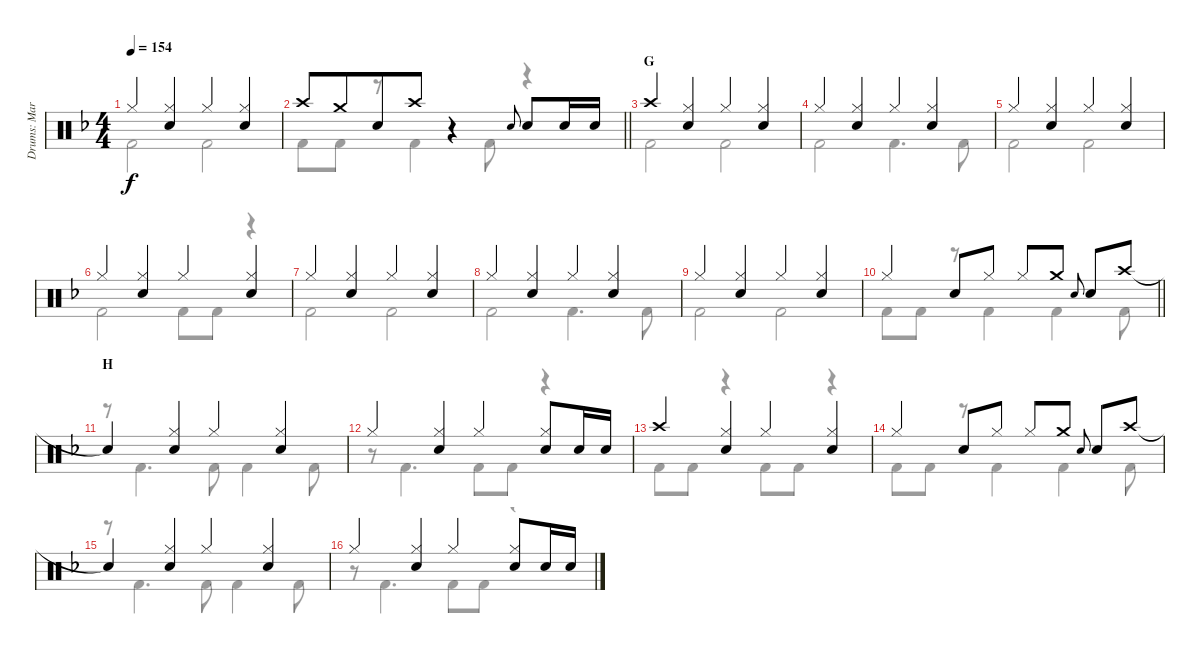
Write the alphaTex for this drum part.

\track ("Drums: Mark" "Drums: Mar") {instrument percussion}
\staff {score}
\articulation defaults
\voice
\ts (4 4)
\tempo 154
\clef neutral
\ks f "Hi-Hat (closed)".4{dy f}
("Hi-Hat (closed)" "Snare (hit) 2").4 "Hi-Hat (closed)".4 ("Hi-Hat (closed)" "Snare (hit) 2").4 |
\barLineRight lightlight "Crash high (hit)".8 "Crash medium (hit)".8{beam merge} "Snare (hit) 2".8 "Crash high (hit)".8
r.4 "Electric Snare (hit)".8{gr onbeat} "Snare (hit) 2".8 "Snare (hit) 2".16 "Snare (hit) 2".16 |
\section ("" "G")
"Crash high (hit)".4 ("Hi-Hat (closed)" "Snare (hit) 2").4 "Hi-Hat (closed)".4 ("Hi-Hat (closed)" "Snare (hit) 2").4 |
"Hi-Hat (closed)".4 ("Hi-Hat (closed)" "Snare (hit) 2").4 "Hi-Hat (closed)".4 ("Hi-Hat (closed)" "Snare (hit) 2").4 |
"Hi-Hat (closed)".4 ("Hi-Hat (closed)" "Snare (hit) 2").4 "Hi-Hat (closed)".4 ("Hi-Hat (closed)" "Snare (hit) 2").4 |
"Hi-Hat (closed)".4 ("Hi-Hat (closed)" "Snare (hit) 2").4 "Hi-Hat (closed)".4 ("Hi-Hat (closed)" "Snare (hit) 2").4 |
"Hi-Hat (closed)".4 ("Hi-Hat (closed)" "Snare (hit) 2").4 "Hi-Hat (closed)".4 ("Hi-Hat (closed)" "Snare (hit) 2").4 |
"Hi-Hat (closed)".4 ("Hi-Hat (closed)" "Snare (hit) 2").4 "Hi-Hat (closed)".4 ("Hi-Hat (closed)" "Snare (hit) 2").4 |
"Hi-Hat (closed)".4 ("Hi-Hat (closed)" "Snare (hit) 2").4 "Hi-Hat (closed)".4 ("Hi-Hat (closed)" "Snare (hit) 2").4 |
\barLineRight lightlight "Hi-Hat (closed)".4 "Snare (hit) 2".8{beam merge} "Hi-Hat (closed)".8 "Hi-Hat (closed)".8 "Crash medium (hit)".8 "Electric Snare (hit)".8{gr onbeat beam merge} "Snare (hit) 2".8 "Crash high (hit)".8
|
\section ("" "H")
"Snare (hit)"{t}.4 ("Hi-Hat (closed)" "Snare (hit) 2").4 "Hi-Hat (closed)".4 ("Hi-Hat (closed)" "Snare (hit) 2").4 |
"Hi-Hat (closed)".4 ("Hi-Hat (closed)" "Snare (hit) 2").4 "Hi-Hat (closed)".4 ("Hi-Hat (closed)" "Snare (hit) 2").8 "Snare (hit) 2".16 "Snare (hit) 2".16 |
"Crash high (hit)".4 ("Hi-Hat (closed)" "Snare (hit) 2").4 "Hi-Hat (closed)".4 ("Hi-Hat (closed)" "Snare (hit) 2").4 |
"Hi-Hat (closed)".4 "Snare (hit) 2".8{beam merge} "Hi-Hat (closed)".8 "Hi-Hat (closed)".8 "Crash medium (hit)".8 "Electric Snare (hit)".8{gr onbeat beam merge} "Snare (hit) 2".8 "Crash high (hit)".8 |
"Snare (hit)"{t}.4 ("Hi-Hat (closed)" "Snare (hit) 2").4 "Hi-Hat (closed)".4 ("Hi-Hat (closed)" "Snare (hit) 2").4 |
"Hi-Hat (closed)".4 ("Hi-Hat (closed)" "Snare (hit) 2").4 "Hi-Hat (closed)".4 ("Hi-Hat (closed)" "Snare (hit) 2").8 "Snare (hit) 2".16 "Snare (hit) 2".16
\voice
\clef neutral
\ottava regular
\simile none
\ks f "Kick (hit) 2".2{dy f} "Kick (hit) 2".2
|
\barLineRight lightlight "Kick (hit) 2".8 "Kick (hit) 2".8
r.8 "Kick (hit) 2".4 "Kick (hit) 2".8 r.4 |
"Kick (hit) 2".2 "Kick (hit) 2".2 |
"Kick (hit) 2".2 "Kick (hit) 2".4{d} "Kick (hit) 2".8 |
"Kick (hit) 2".2 "Kick (hit) 2".2 |
"Kick (hit) 2".2 "Kick (hit) 2".8 "Kick (hit) 2".8 r.4 |
"Kick (hit) 2".2 "Kick (hit) 2".2 |
"Kick (hit) 2".2 "Kick (hit) 2".4{d} "Kick (hit) 2".8 |
"Kick (hit) 2".2 "Kick (hit) 2".2 |
\barLineRight lightlight "Kick (hit) 2".8 "Kick (hit) 2".8
r.8 "Kick (hit) 2".4 "Kick (hit) 2".4 "Kick (hit) 2".8 |
r.8 "Kick (hit) 2".4{d} "Kick (hit) 2".8 "Kick (hit) 2".4 "Kick (hit) 2".8 |
r.8 "Kick (hit) 2".4{d} "Kick (hit) 2".8 "Kick (hit) 2".8 r.4 |
"Kick (hit) 2".8 "Kick (hit) 2".8 r.4 "Kick (hit) 2".8 "Kick (hit) 2".8 r.4 |
"Kick (hit) 2".8 "Kick (hit) 2".8 r.8 "Kick (hit) 2".4 "Kick (hit) 2".4 "Kick (hit) 2".8 |
r.8 "Kick (hit) 2".4{d} "Kick (hit) 2".8 "Kick (hit) 2".4 "Kick (hit) 2".8 |
r.8 "Kick (hit) 2".4{d} "Kick (hit) 2".8 "Kick (hit) 2".8 r.4
